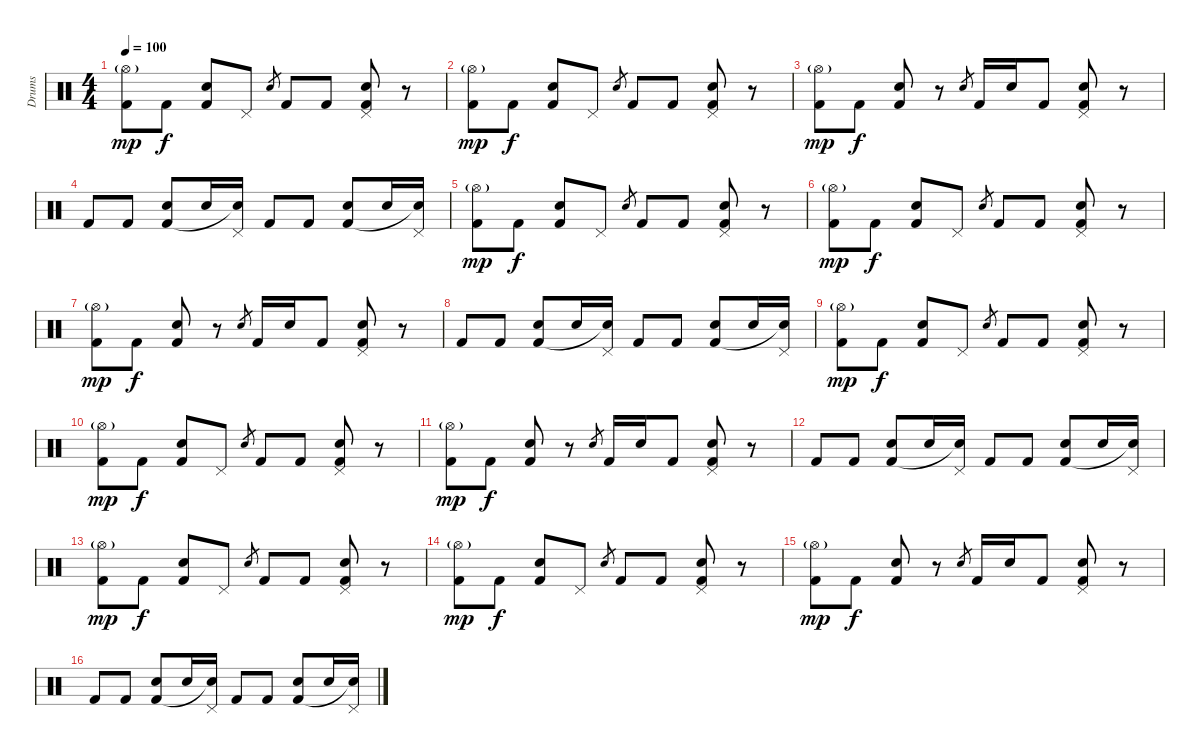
\track ("Drums" "Drums") {instrument percussion}
\staff {score}
\articulation defaults
\ts (4 4)
\tempo 100
\clef neutral
\ks c
("Hi-Hat (open)"{g} "Kick (hit) 2").8{dy mp} "Kick (hit) 2".8{dy f} ("Snare (hit) 2" "Kick (hit) 2").8 "Pedal Hi-Hat (hit)".8 "Snare (hit) 2".8{gr} "Kick (hit) 2".8 "Kick (hit) 2".8 ("Pedal Hi-Hat (hit)" "Snare (hit) 2" "Kick (hit) 2").8 r.8 |
("Hi-Hat (open)"{g} "Kick (hit) 2").8{dy mp} "Kick (hit) 2".8{dy f} ("Snare (hit) 2" "Kick (hit) 2").8 "Pedal Hi-Hat (hit)".8 "Snare (hit) 2".8{gr} "Kick (hit) 2".8 "Kick (hit) 2".8 ("Pedal Hi-Hat (hit)" "Snare (hit) 2" "Kick (hit) 2").8 r.8 |
("Hi-Hat (open)"{g} "Kick (hit) 2").8{dy mp} "Kick (hit) 2".8{dy f} ("Snare (hit) 2" "Kick (hit) 2").8 r.8 "Snare (hit) 2".8{gr} "Kick (hit) 2".16 "Snare (hit) 2".16 "Kick (hit) 2".8 ("Pedal Hi-Hat (hit)" "Snare (hit) 2" "Kick (hit) 2").8 r.8 |
"Kick (hit) 2".8 "Kick (hit) 2".8 ("Snare (hit) 2" "Kick (hit) 2").8 "Snare (hit) 2".16 ("Pedal Hi-Hat (hit)" "Snare (hit)"{t}).16 "Kick (hit) 2".8 "Kick (hit) 2".8 ("Snare (hit) 2" "Kick (hit) 2").8 "Snare (hit) 2".16 ("Pedal Hi-Hat (hit)" "Snare (hit)"{t}).16 |
("Hi-Hat (open)"{g} "Kick (hit) 2").8{dy mp} "Kick (hit) 2".8{dy f} ("Snare (hit) 2" "Kick (hit) 2").8 "Pedal Hi-Hat (hit)".8 "Snare (hit) 2".8{gr} "Kick (hit) 2".8 "Kick (hit) 2".8 ("Pedal Hi-Hat (hit)" "Snare (hit) 2" "Kick (hit) 2").8 r.8 |
("Hi-Hat (open)"{g} "Kick (hit) 2").8{dy mp} "Kick (hit) 2".8{dy f} ("Snare (hit) 2" "Kick (hit) 2").8 "Pedal Hi-Hat (hit)".8 "Snare (hit) 2".8{gr} "Kick (hit) 2".8 "Kick (hit) 2".8 ("Pedal Hi-Hat (hit)" "Snare (hit) 2" "Kick (hit) 2").8 r.8 |
("Hi-Hat (open)"{g} "Kick (hit) 2").8{dy mp} "Kick (hit) 2".8{dy f} ("Snare (hit) 2" "Kick (hit) 2").8 r.8 "Snare (hit) 2".8{gr} "Kick (hit) 2".16 "Snare (hit) 2".16 "Kick (hit) 2".8 ("Pedal Hi-Hat (hit)" "Snare (hit) 2" "Kick (hit) 2").8 r.8 |
"Kick (hit) 2".8 "Kick (hit) 2".8 ("Snare (hit) 2" "Kick (hit) 2").8 "Snare (hit) 2".16 ("Pedal Hi-Hat (hit)" "Snare (hit)"{t}).16 "Kick (hit) 2".8 "Kick (hit) 2".8 ("Snare (hit) 2" "Kick (hit) 2").8 "Snare (hit) 2".16 ("Pedal Hi-Hat (hit)" "Snare (hit)"{t}).16 |
("Hi-Hat (open)"{g} "Kick (hit) 2").8{dy mp} "Kick (hit) 2".8{dy f} ("Snare (hit) 2" "Kick (hit) 2").8 "Pedal Hi-Hat (hit)".8 "Snare (hit) 2".8{gr} "Kick (hit) 2".8 "Kick (hit) 2".8 ("Pedal Hi-Hat (hit)" "Snare (hit) 2" "Kick (hit) 2").8 r.8 |
("Hi-Hat (open)"{g} "Kick (hit) 2").8{dy mp} "Kick (hit) 2".8{dy f} ("Snare (hit) 2" "Kick (hit) 2").8 "Pedal Hi-Hat (hit)".8 "Snare (hit) 2".8{gr} "Kick (hit) 2".8 "Kick (hit) 2".8 ("Pedal Hi-Hat (hit)" "Snare (hit) 2" "Kick (hit) 2").8 r.8 |
("Hi-Hat (open)"{g} "Kick (hit) 2").8{dy mp} "Kick (hit) 2".8{dy f} ("Snare (hit) 2" "Kick (hit) 2").8 r.8 "Snare (hit) 2".8{gr} "Kick (hit) 2".16 "Snare (hit) 2".16 "Kick (hit) 2".8 ("Pedal Hi-Hat (hit)" "Snare (hit) 2" "Kick (hit) 2").8 r.8 |
"Kick (hit) 2".8 "Kick (hit) 2".8 ("Snare (hit) 2" "Kick (hit) 2").8 "Snare (hit) 2".16 ("Pedal Hi-Hat (hit)" "Snare (hit)"{t}).16 "Kick (hit) 2".8 "Kick (hit) 2".8 ("Snare (hit) 2" "Kick (hit) 2").8 "Snare (hit) 2".16 ("Pedal Hi-Hat (hit)" "Snare (hit)"{t}).16 |
("Hi-Hat (open)"{g} "Kick (hit) 2").8{dy mp} "Kick (hit) 2".8{dy f} ("Snare (hit) 2" "Kick (hit) 2").8 "Pedal Hi-Hat (hit)".8 "Snare (hit) 2".8{gr} "Kick (hit) 2".8 "Kick (hit) 2".8 ("Pedal Hi-Hat (hit)" "Snare (hit) 2" "Kick (hit) 2").8 r.8 |
("Hi-Hat (open)"{g} "Kick (hit) 2").8{dy mp} "Kick (hit) 2".8{dy f} ("Snare (hit) 2" "Kick (hit) 2").8 "Pedal Hi-Hat (hit)".8 "Snare (hit) 2".8{gr} "Kick (hit) 2".8 "Kick (hit) 2".8 ("Pedal Hi-Hat (hit)" "Snare (hit) 2" "Kick (hit) 2").8 r.8 |
("Hi-Hat (open)"{g} "Kick (hit) 2").8{dy mp} "Kick (hit) 2".8{dy f} ("Snare (hit) 2" "Kick (hit) 2").8 r.8 "Snare (hit) 2".8{gr} "Kick (hit) 2".16 "Snare (hit) 2".16 "Kick (hit) 2".8 ("Pedal Hi-Hat (hit)" "Snare (hit) 2" "Kick (hit) 2").8 r.8 |
"Kick (hit) 2".8 "Kick (hit) 2".8 ("Snare (hit) 2" "Kick (hit) 2").8 "Snare (hit) 2".16 ("Pedal Hi-Hat (hit)" "Snare (hit)"{t}).16 "Kick (hit) 2".8 "Kick (hit) 2".8 ("Snare (hit) 2" "Kick (hit) 2").8 "Snare (hit) 2".16 ("Pedal Hi-Hat (hit)" "Snare (hit)"{t}).16
